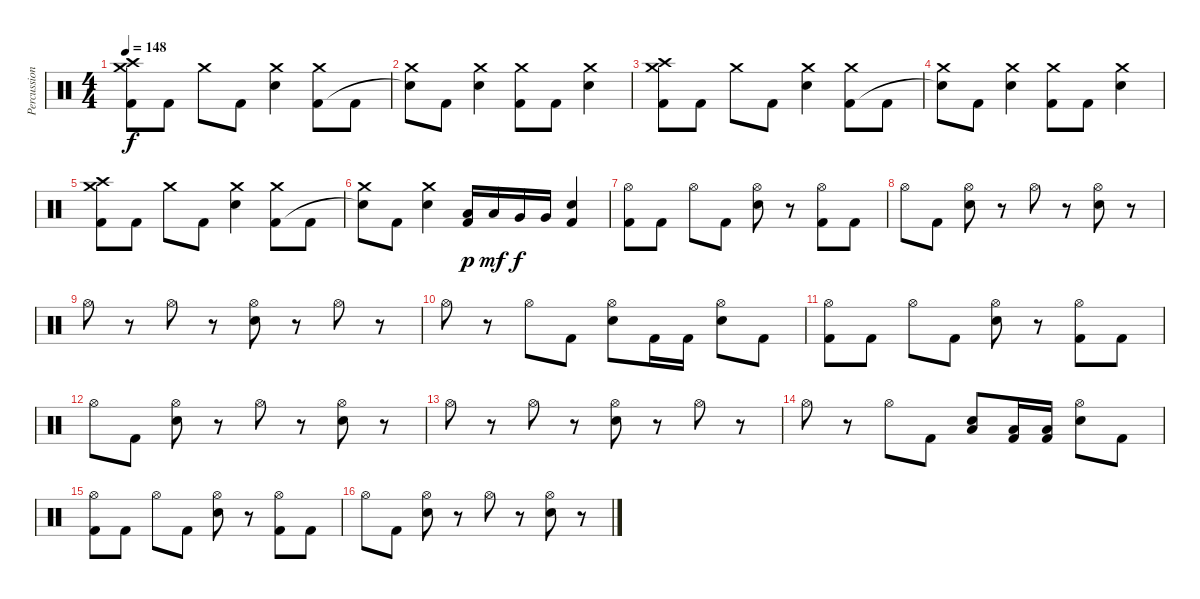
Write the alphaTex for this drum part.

\track ("Percussion" "Percussion") {instrument percussion}
\staff {score}
\articulation defaults
\ts (4 4)
\tempo 148
\clef neutral
\ks c
("Crash medium (hit)" "Crash high (hit)" "Kick (hit) 2").8{dy f} "Kick (hit) 2".8 "Crash medium (hit)".8 "Kick (hit) 2".8 ("Crash medium (hit)" "Electric Snare (hit)").4 ("Crash medium (hit)" "Kick (hit) 2").8 "Kick (hit) 2".8 |
("Crash medium (hit)" "Snare (hit)"{t}).8 "Kick (hit) 2".8 ("Crash medium (hit)" "Electric Snare (hit)").4 ("Crash medium (hit)" "Kick (hit) 2").8 "Kick (hit) 2".8 ("Crash medium (hit)" "Electric Snare (hit)").4 |
("Crash medium (hit)" "Crash high (hit)" "Kick (hit) 2").8 "Kick (hit) 2".8 "Crash medium (hit)".8 "Kick (hit) 2".8 ("Crash medium (hit)" "Electric Snare (hit)").4 ("Crash medium (hit)" "Kick (hit) 2").8 "Kick (hit) 2".8 |
("Crash medium (hit)" "Snare (hit)"{t}).8 "Kick (hit) 2".8 ("Crash medium (hit)" "Electric Snare (hit)").4 ("Crash medium (hit)" "Kick (hit) 2").8 "Kick (hit) 2".8 ("Crash medium (hit)" "Electric Snare (hit)").4 |
("Crash medium (hit)" "Crash high (hit)" "Kick (hit) 2").8 "Kick (hit) 2".8 "Crash medium (hit)".8 "Kick (hit) 2".8 ("Crash medium (hit)" "Electric Snare (hit)").4 ("Crash medium (hit)" "Kick (hit) 2").8 "Kick (hit) 2".8 |
("Crash medium (hit)" "Snare (hit)"{t}).8 "Kick (hit) 2".8 ("Crash medium (hit)" "Electric Snare (hit)").4 ("Low Tom (hit)" "Kick (hit) 2").16{dy p} "Low Tom (hit)".16{dy mf} "Very Low Tom (hit)".16{dy f} "Very Low Tom (hit)".16 ("Electric Snare (hit)" "Kick (hit) 2").4 |
("Hi-Hat (open)" "Kick (hit) 2").8 "Kick (hit) 2".8 "Hi-Hat (open)".8 "Kick (hit) 2".8 ("Hi-Hat (open)" "Electric Snare (hit)").8 r.8 ("Hi-Hat (open)" "Kick (hit) 2").8 "Kick (hit) 2".8 |
"Hi-Hat (open)".8 "Kick (hit) 2".8 ("Hi-Hat (open)" "Electric Snare (hit)").8 r.8 "Hi-Hat (open)".8 r.8 ("Hi-Hat (open)" "Electric Snare (hit)").8 r.8 |
"Hi-Hat (open)".8 r.8 "Hi-Hat (open)".8 r.8 ("Hi-Hat (open)" "Electric Snare (hit)").8 r.8 "Hi-Hat (open)".8 r.8 |
"Hi-Hat (open)".8 r.8 "Hi-Hat (open)".8 "Kick (hit) 2".8 ("Hi-Hat (open)" "Electric Snare (hit)").8 "Kick (hit) 2".16 "Kick (hit) 2".16 ("Hi-Hat (open)" "Electric Snare (hit)").8 "Kick (hit) 2".8 |
("Hi-Hat (open)" "Kick (hit) 2").8 "Kick (hit) 2".8 "Hi-Hat (open)".8 "Kick (hit) 2".8 ("Hi-Hat (open)" "Electric Snare (hit)").8 r.8 ("Hi-Hat (open)" "Kick (hit) 2").8 "Kick (hit) 2".8 |
"Hi-Hat (open)".8 "Kick (hit) 2".8 ("Hi-Hat (open)" "Electric Snare (hit)").8 r.8 "Hi-Hat (open)".8 r.8 ("Hi-Hat (open)" "Electric Snare (hit)").8 r.8 |
"Hi-Hat (open)".8 r.8 "Hi-Hat (open)".8 r.8 ("Hi-Hat (open)" "Electric Snare (hit)").8 r.8 "Hi-Hat (open)".8 r.8 |
"Hi-Hat (open)".8 r.8 "Hi-Hat (open)".8 "Kick (hit) 2".8 ("Low Tom (hit)" "Electric Snare (hit)").8 ("Low Floor Tom (hit)" "Kick (hit) 2").16 ("Low Floor Tom (hit)" "Kick (hit) 2").16 ("Hi-Hat (open)" "Electric Snare (hit)").8 "Kick (hit) 2".8 |
("Hi-Hat (open)" "Kick (hit) 2").8 "Kick (hit) 2".8 "Hi-Hat (open)".8 "Kick (hit) 2".8 ("Hi-Hat (open)" "Electric Snare (hit)").8 r.8 ("Hi-Hat (open)" "Kick (hit) 2").8 "Kick (hit) 2".8 |
"Hi-Hat (open)".8 "Kick (hit) 2".8 ("Hi-Hat (open)" "Electric Snare (hit)").8 r.8 "Hi-Hat (open)".8 r.8 ("Hi-Hat (open)" "Electric Snare (hit)").8 r.8
